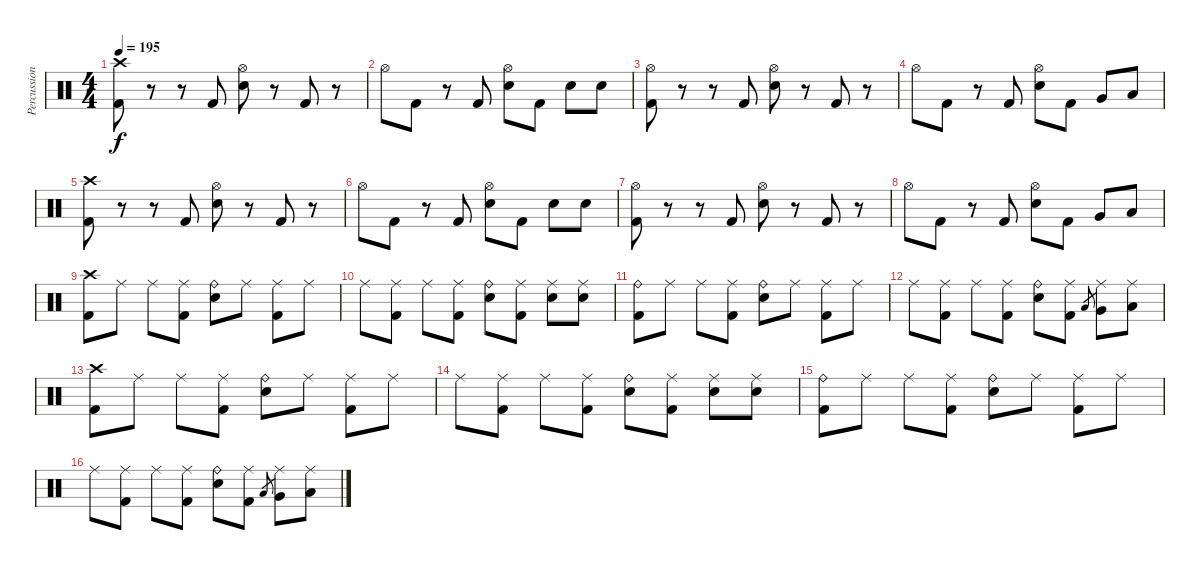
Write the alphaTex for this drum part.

\track ("Percussion" "Percussion") {instrument percussion}
\staff {score}
\articulation defaults
\ts (4 4)
\tempo 195
\clef neutral
\ks c
("Crash high (hit)" "Kick (hit) 2").8{dy f} r.8 r.8 "Kick (hit) 2".8 ("Hi-Hat (open)" "Electric Snare (hit)").8 r.8 "Kick (hit) 2".8 r.8 |
"Hi-Hat (open)".8 "Kick (hit) 2".8 r.8 "Kick (hit) 2".8 ("Hi-Hat (open)" "Electric Snare (hit)").8 "Kick (hit) 2".8 "Electric Snare (hit)".8 "Electric Snare (hit)".8 |
("Hi-Hat (open)" "Kick (hit) 2").8 r.8 r.8 "Kick (hit) 2".8 ("Hi-Hat (open)" "Electric Snare (hit)").8 r.8 "Kick (hit) 2".8 r.8 |
"Hi-Hat (open)".8 "Kick (hit) 2".8 r.8 "Kick (hit) 2".8 ("Hi-Hat (open)" "Electric Snare (hit)").8 "Kick (hit) 2".8 "Very Low Tom (hit)".8 "Low Floor Tom (hit)".8 |
("Crash high (hit)" "Kick (hit) 2").8 r.8 r.8 "Kick (hit) 2".8 ("Hi-Hat (open)" "Electric Snare (hit)").8 r.8 "Kick (hit) 2".8 r.8 |
"Hi-Hat (open)".8 "Kick (hit) 2".8 r.8 "Kick (hit) 2".8 ("Hi-Hat (open)" "Electric Snare (hit)").8 "Kick (hit) 2".8 "Electric Snare (hit)".8 "Electric Snare (hit)".8 |
("Hi-Hat (open)" "Kick (hit) 2").8 r.8 r.8 "Kick (hit) 2".8 ("Hi-Hat (open)" "Electric Snare (hit)").8 r.8 "Kick (hit) 2".8 r.8 |
"Hi-Hat (open)".8 "Kick (hit) 2".8 r.8 "Kick (hit) 2".8 ("Hi-Hat (open)" "Electric Snare (hit)").8 "Kick (hit) 2".8 "Very Low Tom (hit)".8 "Low Floor Tom (hit)".8 |
("Crash high (hit)" "Kick (hit) 2").8 "Ride (middle)".8 "Ride (middle)".8 ("Ride (middle)" "Kick (hit) 2").8 ("Ride (bell)" "Electric Snare (hit)").8 "Ride (middle)".8 ("Ride (middle)" "Kick (hit) 2").8 "Ride (middle)".8 |
"Ride (middle)".8 ("Ride (middle)" "Kick (hit) 2").8 "Ride (middle)".8 ("Ride (middle)" "Kick (hit) 2").8 ("Ride (bell)" "Electric Snare (hit)").8 ("Ride (middle)" "Kick (hit) 2").8 ("Ride (middle)" "Electric Snare (hit)").8 ("Ride (middle)" "Electric Snare (hit)").8 |
("Ride (bell)" "Kick (hit) 2").8 "Ride (middle)".8 "Ride (middle)".8 ("Ride (middle)" "Kick (hit) 2").8 ("Ride (bell)" "Electric Snare (hit)").8 "Ride (middle)".8 ("Ride (middle)" "Kick (hit) 2").8 "Ride (middle)".8 |
"Ride (middle)".8 ("Ride (middle)" "Kick (hit) 2").8 "Ride (middle)".8 ("Ride (middle)" "Kick (hit) 2").8 ("Ride (bell)" "Electric Snare (hit)").8 ("Ride (middle)" "Kick (hit) 2").8 "Low Tom (hit)".8{gr} ("Ride (middle)" "Very Low Tom (hit)").8 ("Ride (middle)" "Low Floor Tom (hit)").8 |
("Crash high (hit)" "Kick (hit) 2").8 "Ride (middle)".8 "Ride (middle)".8 ("Ride (middle)" "Kick (hit) 2").8 ("Ride (bell)" "Electric Snare (hit)").8 "Ride (middle)".8 ("Ride (middle)" "Kick (hit) 2").8 "Ride (middle)".8 |
"Ride (middle)".8 ("Ride (middle)" "Kick (hit) 2").8 "Ride (middle)".8 ("Ride (middle)" "Kick (hit) 2").8 ("Ride (bell)" "Electric Snare (hit)").8 ("Ride (middle)" "Kick (hit) 2").8 ("Ride (middle)" "Electric Snare (hit)").8 ("Ride (middle)" "Electric Snare (hit)").8 |
("Ride (bell)" "Kick (hit) 2").8 "Ride (middle)".8 "Ride (middle)".8 ("Ride (middle)" "Kick (hit) 2").8 ("Ride (bell)" "Electric Snare (hit)").8 "Ride (middle)".8 ("Ride (middle)" "Kick (hit) 2").8 "Ride (middle)".8 |
"Ride (middle)".8 ("Ride (middle)" "Kick (hit) 2").8 "Ride (middle)".8 ("Ride (middle)" "Kick (hit) 2").8 ("Ride (bell)" "Electric Snare (hit)").8 ("Ride (middle)" "Kick (hit) 2").8 "Low Tom (hit)".8{gr} ("Ride (middle)" "Very Low Tom (hit)").8 ("Ride (middle)" "Low Floor Tom (hit)").8
